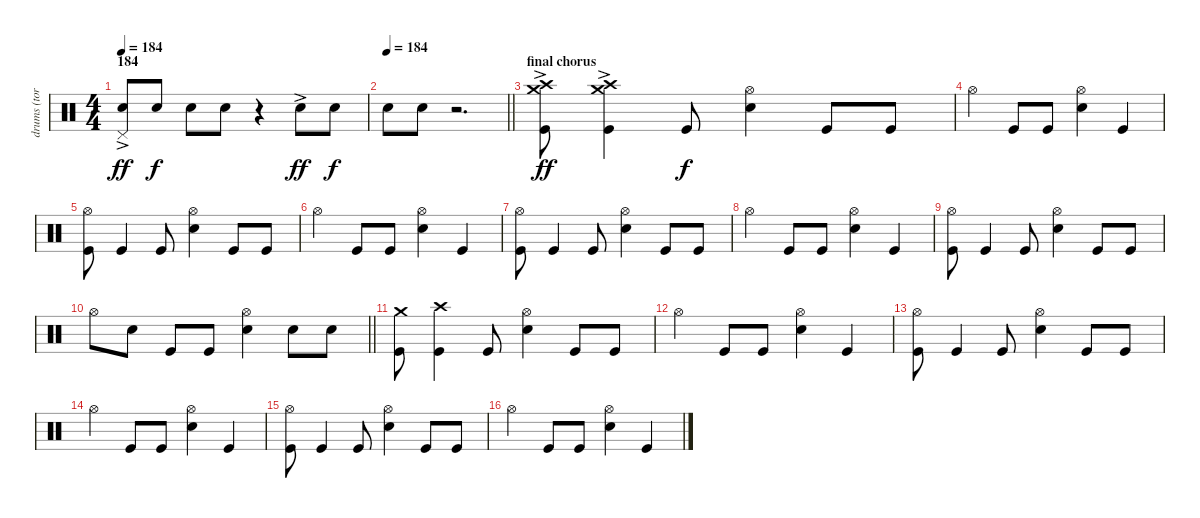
\track ("drums (tora)" "drums (tor") {instrument percussion}
\staff {score}
\articulation defaults
\ts (4 4)
\section ("" "184")
\tempo 184
\clef neutral
\ks c
("Snare (hit) 2"{ac} "Pedal Hi-Hat (hit)").8{dy ff} "Snare (hit) 2".8{dy f} "Snare (hit) 2".8 "Snare (hit) 2".8 r.4 "Snare (hit) 2"{ac}.8{dy ff} "Snare (hit) 2".8{dy f} |
\tempo 184
\barLineRight lightlight "Snare (hit) 2".8 "Snare (hit) 2".8
r.2{d} |
\section ("" "final chorus")
("Crash high (hit)"{ac} "Crash medium (hit)"{ac} "Kick (hit)"{ac}).8{dy ff} ("Crash high (hit)"{ac} "Crash medium (hit)"{ac} "Kick (hit)"{ac}).4 "Kick (hit)".8{dy f} ("Hi-Hat (open)" "Snare (hit) 2").4 "Kick (hit)".8 "Kick (hit)".8 |
"Hi-Hat (open)".4 "Kick (hit)".8 "Kick (hit)".8 ("Hi-Hat (open)" "Snare (hit) 2").4 "Kick (hit)".4 |
("Hi-Hat (open)" "Kick (hit)").8 "Kick (hit)".4 "Kick (hit)".8 ("Hi-Hat (open)" "Snare (hit) 2").4 "Kick (hit)".8 "Kick (hit)".8 |
"Hi-Hat (open)".4 "Kick (hit)".8 "Kick (hit)".8 ("Hi-Hat (open)" "Snare (hit) 2").4 "Kick (hit)".4 |
("Hi-Hat (open)" "Kick (hit)").8 "Kick (hit)".4 "Kick (hit)".8 ("Hi-Hat (open)" "Snare (hit) 2").4 "Kick (hit)".8 "Kick (hit)".8 |
"Hi-Hat (open)".4 "Kick (hit)".8 "Kick (hit)".8 ("Hi-Hat (open)" "Snare (hit) 2").4 "Kick (hit)".4 |
("Hi-Hat (open)" "Kick (hit)").8 "Kick (hit)".4 "Kick (hit)".8 ("Hi-Hat (open)" "Snare (hit) 2").4 "Kick (hit)".8 "Kick (hit)".8 |
\barLineRight lightlight "Hi-Hat (open)".8 "Snare (hit) 2".8 "Kick (hit)".8 "Kick (hit)".8
("Hi-Hat (open)" "Snare (hit) 2").4 "Snare (hit) 2".8 "Snare (hit) 2".8 |
\section ("" "")
("Crash medium (hit)" "Kick (hit)").8 ("Crash high (hit)" "Kick (hit)").4 "Kick (hit)".8 ("Hi-Hat (open)" "Snare (hit) 2").4 "Kick (hit)".8 "Kick (hit)".8 |
"Hi-Hat (open)".4 "Kick (hit)".8 "Kick (hit)".8 ("Hi-Hat (open)" "Snare (hit) 2").4 "Kick (hit)".4 |
("Hi-Hat (open)" "Kick (hit)").8 "Kick (hit)".4 "Kick (hit)".8 ("Hi-Hat (open)" "Snare (hit) 2").4 "Kick (hit)".8 "Kick (hit)".8 |
"Hi-Hat (open)".4 "Kick (hit)".8 "Kick (hit)".8 ("Hi-Hat (open)" "Snare (hit) 2").4 "Kick (hit)".4 |
("Hi-Hat (open)" "Kick (hit)").8 "Kick (hit)".4 "Kick (hit)".8 ("Hi-Hat (open)" "Snare (hit) 2").4 "Kick (hit)".8 "Kick (hit)".8 |
"Hi-Hat (open)".4 "Kick (hit)".8 "Kick (hit)".8 ("Hi-Hat (open)" "Snare (hit) 2").4 "Kick (hit)".4
